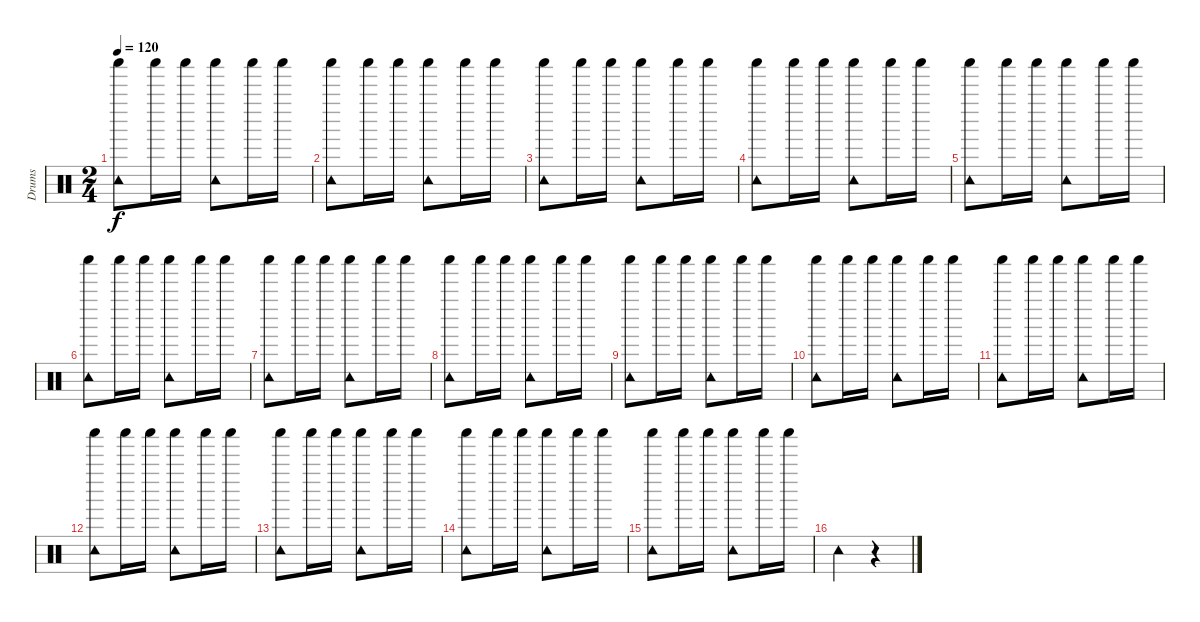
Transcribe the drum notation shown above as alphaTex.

\track ("Drums" "Drums") {instrument percussion}
\staff {score}
\articulation defaults
\ts (2 4)
\tempo 120
\clef neutral
\ks c
("Shaker (hit)" "Tambourine (hit)").8{dy f} "Shaker (hit)".16 "Shaker (hit)".16 ("Shaker (hit)" "Tambourine (hit)").8 "Shaker (hit)".16 "Shaker (hit)".16 |
("Shaker (hit)" "Tambourine (hit)").8 "Shaker (hit)".16 "Shaker (hit)".16 ("Shaker (hit)" "Tambourine (hit)").8 "Shaker (hit)".16 "Shaker (hit)".16 |
("Shaker (hit)" "Tambourine (hit)").8 "Shaker (hit)".16 "Shaker (hit)".16 ("Shaker (hit)" "Tambourine (hit)").8 "Shaker (hit)".16 "Shaker (hit)".16 |
("Shaker (hit)" "Tambourine (hit)").8 "Shaker (hit)".16 "Shaker (hit)".16 ("Shaker (hit)" "Tambourine (hit)").8 "Shaker (hit)".16 "Shaker (hit)".16 |
("Shaker (hit)" "Tambourine (hit)").8 "Shaker (hit)".16 "Shaker (hit)".16 ("Shaker (hit)" "Tambourine (hit)").8 "Shaker (hit)".16 "Shaker (hit)".16 |
("Shaker (hit)" "Tambourine (hit)").8 "Shaker (hit)".16 "Shaker (hit)".16 ("Shaker (hit)" "Tambourine (hit)").8 "Shaker (hit)".16 "Shaker (hit)".16 |
("Shaker (hit)" "Tambourine (hit)").8 "Shaker (hit)".16 "Shaker (hit)".16 ("Shaker (hit)" "Tambourine (hit)").8 "Shaker (hit)".16 "Shaker (hit)".16 |
("Shaker (hit)" "Tambourine (hit)").8 "Shaker (hit)".16 "Shaker (hit)".16 ("Shaker (hit)" "Tambourine (hit)").8 "Shaker (hit)".16 "Shaker (hit)".16 |
("Shaker (hit)" "Tambourine (hit)").8 "Shaker (hit)".16 "Shaker (hit)".16 ("Shaker (hit)" "Tambourine (hit)").8 "Shaker (hit)".16 "Shaker (hit)".16 |
("Shaker (hit)" "Tambourine (hit)").8 "Shaker (hit)".16 "Shaker (hit)".16 ("Shaker (hit)" "Tambourine (hit)").8 "Shaker (hit)".16 "Shaker (hit)".16 |
("Shaker (hit)" "Tambourine (hit)").8 "Shaker (hit)".16 "Shaker (hit)".16 ("Shaker (hit)" "Tambourine (hit)").8 "Shaker (hit)".16 "Shaker (hit)".16 |
("Shaker (hit)" "Tambourine (hit)").8 "Shaker (hit)".16 "Shaker (hit)".16 ("Shaker (hit)" "Tambourine (hit)").8 "Shaker (hit)".16 "Shaker (hit)".16 |
("Shaker (hit)" "Tambourine (hit)").8 "Shaker (hit)".16 "Shaker (hit)".16 ("Shaker (hit)" "Tambourine (hit)").8 "Shaker (hit)".16 "Shaker (hit)".16 |
("Shaker (hit)" "Tambourine (hit)").8 "Shaker (hit)".16 "Shaker (hit)".16 ("Shaker (hit)" "Tambourine (hit)").8 "Shaker (hit)".16 "Shaker (hit)".16 |
("Shaker (hit)" "Tambourine (hit)").8 "Shaker (hit)".16 "Shaker (hit)".16 ("Shaker (hit)" "Tambourine (hit)").8 "Shaker (hit)".16 "Shaker (hit)".16 |
"Tambourine (hit)".4 r.4
